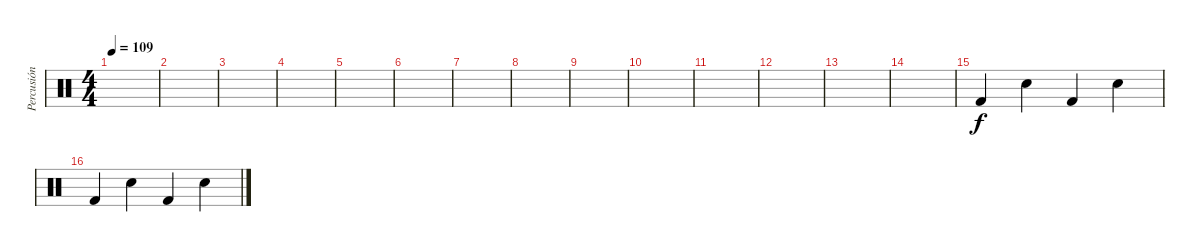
\track ("Percusión" "Percusión") {instrument percussion}
\staff {score}
\articulation defaults
\ts (4 4)
\tempo 109
\clef neutral
\ks c
|
|
|
|
|
|
|
|
|
|
|
|
|
|
"Kick (hit) 2".4 "Snare (hit) 2".4 "Kick (hit) 2".4 "Snare (hit) 2".4 |
"Kick (hit) 2".4 "Snare (hit) 2".4 "Kick (hit) 2".4 "Snare (hit) 2".4
